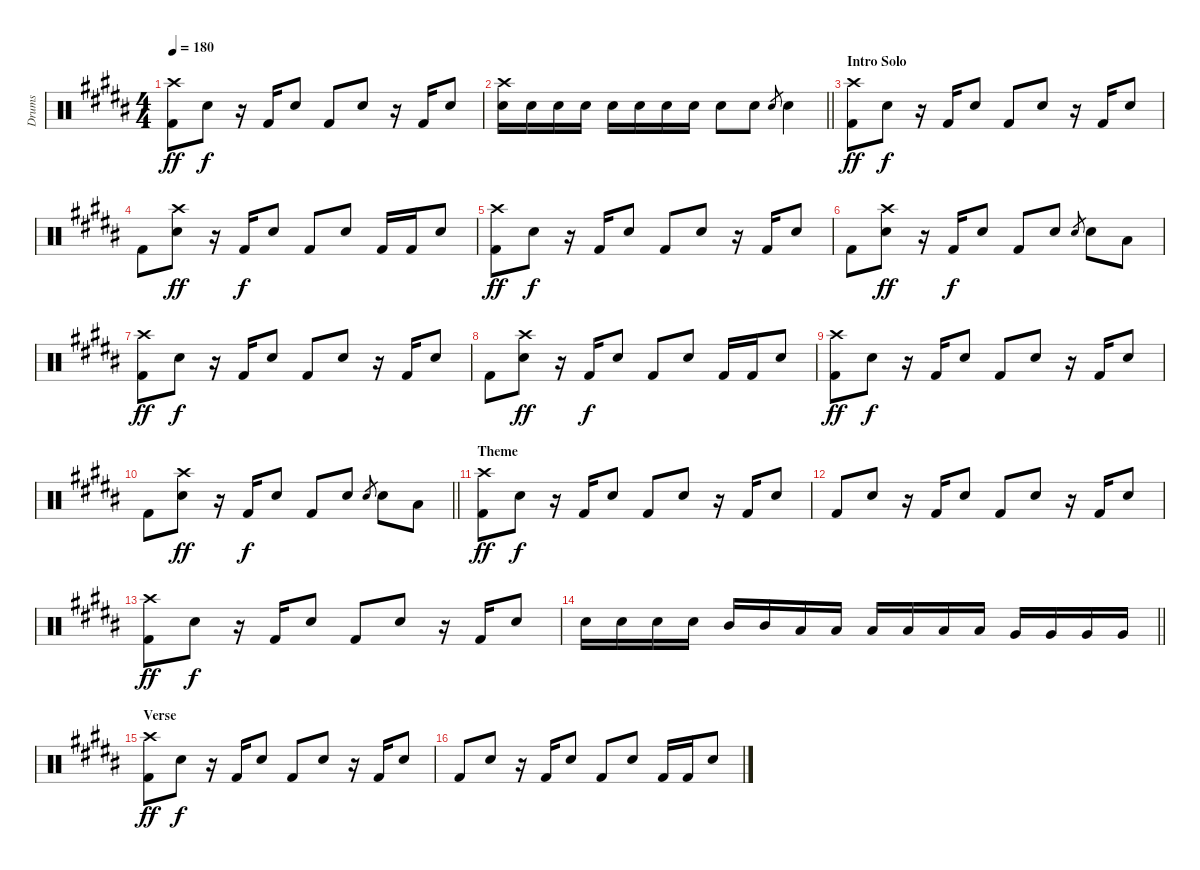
\track ("Drums" "Drums") {instrument percussion}
\staff {score}
\articulation defaults
\ts (4 4)
\tempo 180
\clef neutral
\ks g#minor
("Kick (hit) 2" "Crash high (hit)").8{dy ff} "Snare (hit) 2".8{dy f} r.16 "Kick (hit) 2".16 "Snare (hit) 2".8 "Kick (hit) 2".8 "Snare (hit) 2".8 r.16 "Kick (hit) 2".16 "Snare (hit) 2".8 |
\barLineRight lightlight
("Snare (hit) 2" "Crash high (hit)").16 "Snare (hit) 2".16 "Snare (hit) 2".16 "Snare (hit) 2".16 "Snare (hit) 2".16 "Snare (hit) 2".16 "Snare (hit) 2".16 "Snare (hit) 2".16 "Snare (hit) 2".8 "Snare (hit) 2".8 "Snare (hit) 2".8{gr} "Snare (hit) 2".4 |
\section ("" "Intro Solo")
("Kick (hit) 2" "Crash high (hit)").8{dy ff} "Snare (hit) 2".8{dy f} r.16 "Kick (hit) 2".16 "Snare (hit) 2".8 "Kick (hit) 2".8 "Snare (hit) 2".8 r.16 "Kick (hit) 2".16 "Snare (hit) 2".8 |
"Kick (hit) 2".8 ("Snare (hit) 2" "Crash high (hit)").8{dy ff} r.16 "Kick (hit) 2".16{dy f} "Snare (hit) 2".8 "Kick (hit) 2".8 "Snare (hit) 2".8 "Kick (hit) 2".16 "Kick (hit) 2".16 "Snare (hit) 2".8 |
("Kick (hit) 2" "Crash high (hit)").8{dy ff} "Snare (hit) 2".8{dy f} r.16 "Kick (hit) 2".16 "Snare (hit) 2".8 "Kick (hit) 2".8 "Snare (hit) 2".8 r.16 "Kick (hit) 2".16 "Snare (hit) 2".8 |
"Kick (hit) 2".8 ("Snare (hit) 2" "Crash high (hit)").8{dy ff} r.16 "Kick (hit) 2".16{dy f} "Snare (hit) 2".8 "Kick (hit) 2".8 "Snare (hit) 2".8 "Snare (hit) 2".8{gr} "Snare (hit) 2".8 "Low Tom (hit)".8 |
("Kick (hit) 2" "Crash high (hit)").8{dy ff} "Snare (hit) 2".8{dy f} r.16 "Kick (hit) 2".16 "Snare (hit) 2".8 "Kick (hit) 2".8 "Snare (hit) 2".8 r.16 "Kick (hit) 2".16 "Snare (hit) 2".8 |
"Kick (hit) 2".8 ("Snare (hit) 2" "Crash high (hit)").8{dy ff} r.16 "Kick (hit) 2".16{dy f} "Snare (hit) 2".8 "Kick (hit) 2".8 "Snare (hit) 2".8 "Kick (hit) 2".16 "Kick (hit) 2".16 "Snare (hit) 2".8 |
("Kick (hit) 2" "Crash high (hit)").8{dy ff} "Snare (hit) 2".8{dy f} r.16 "Kick (hit) 2".16 "Snare (hit) 2".8 "Kick (hit) 2".8 "Snare (hit) 2".8 r.16 "Kick (hit) 2".16 "Snare (hit) 2".8 |
\barLineRight lightlight "Kick (hit) 2".8
("Snare (hit) 2" "Crash high (hit)").8{dy ff} r.16 "Kick (hit) 2".16{dy f} "Snare (hit) 2".8 "Kick (hit) 2".8 "Snare (hit) 2".8 "Snare (hit) 2".8{gr} "Snare (hit) 2".8 "Low Tom (hit)".8 |
\section ("" "Theme")
("Kick (hit) 2" "Crash high (hit)").8{dy ff} "Snare (hit) 2".8{dy f} r.16 "Kick (hit) 2".16 "Snare (hit) 2".8 "Kick (hit) 2".8 "Snare (hit) 2".8 r.16 "Kick (hit) 2".16 "Snare (hit) 2".8 |
"Kick (hit) 2".8 "Snare (hit) 2".8 r.16 "Kick (hit) 2".16 "Snare (hit) 2".8 "Kick (hit) 2".8 "Snare (hit) 2".8 r.16 "Kick (hit) 2".16 "Snare (hit) 2".8 |
("Kick (hit) 2" "Crash high (hit)").8{dy ff} "Snare (hit) 2".8{dy f} r.16 "Kick (hit) 2".16 "Snare (hit) 2".8 "Kick (hit) 2".8 "Snare (hit) 2".8 r.16 "Kick (hit) 2".16 "Snare (hit) 2".8 |
\barLineRight lightlight "Snare (hit) 2".16 "Snare (hit) 2".16 "Snare (hit) 2".16 "Snare (hit) 2".16 "Mid Tom (hit)".16 "Mid Tom (hit)".16 "Low Tom (hit)".16 "Low Tom (hit)".16 "Low Tom (hit)".16 "Low Tom (hit)".16 "Low Tom (hit)".16 "Low Tom (hit)".16 "Very Low Tom (hit)".16 "Very Low Tom (hit)".16 "Very Low Tom (hit)".16 "Very Low Tom (hit)".16
|
\section ("" "Verse")
("Kick (hit) 2" "Crash high (hit)").8{dy ff} "Snare (hit) 2".8{dy f} r.16 "Kick (hit) 2".16 "Snare (hit) 2".8 "Kick (hit) 2".8 "Snare (hit) 2".8 r.16 "Kick (hit) 2".16 "Snare (hit) 2".8 |
"Kick (hit) 2".8 "Snare (hit) 2".8 r.16 "Kick (hit) 2".16 "Snare (hit) 2".8 "Kick (hit) 2".8 "Snare (hit) 2".8 "Kick (hit) 2".16 "Kick (hit) 2".16 "Snare (hit) 2".8
